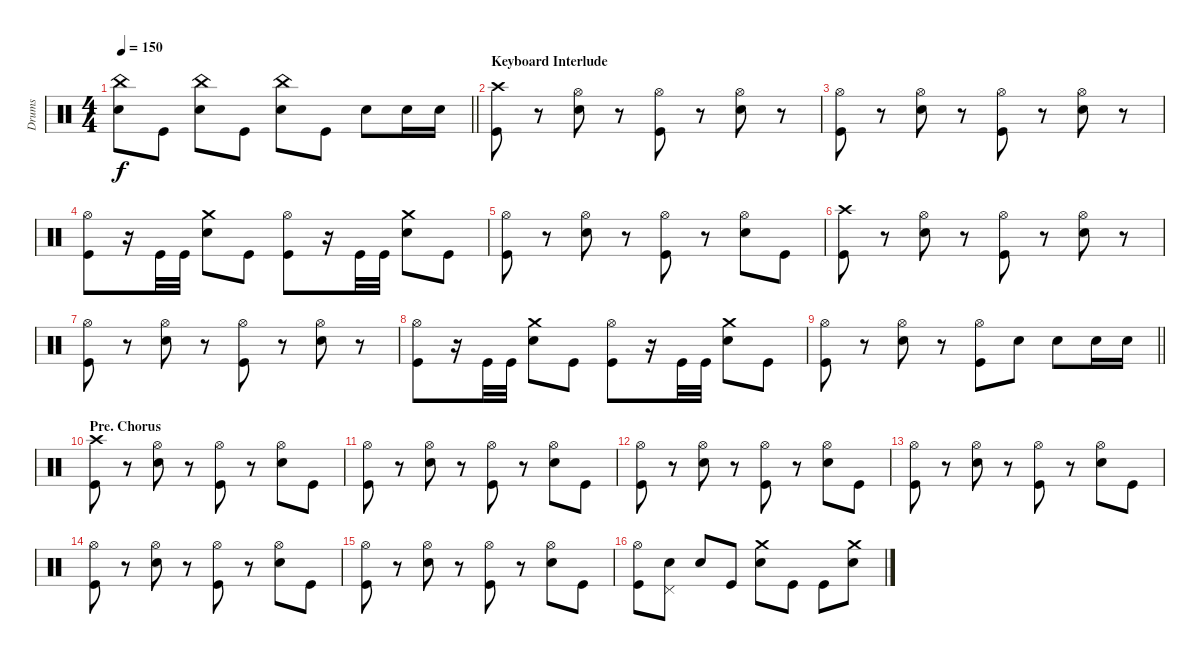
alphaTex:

\track ("Drums" "Drums") {instrument percussion}
\staff {score}
\articulation defaults
\ts (4 4)
\tempo 150
\clef neutral
\barLineRight lightlight
\ks c
("China (hit)" "Electric Snare (hit)").8{dy f} "Kick (hit)".8 ("China (hit)" "Electric Snare (hit)").8 "Kick (hit)".8 ("China (hit)" "Electric Snare (hit)").8 "Kick (hit)".8 "Electric Snare (hit)".8 "Electric Snare (hit)".16 "Electric Snare (hit)".16 |
\section ("" "Keyboard Interlude")
("Crash high (hit)" "Kick (hit)").8 r.8 ("Hi-Hat (open)" "Electric Snare (hit)").8 r.8 ("Hi-Hat (open)" "Kick (hit)").8 r.8 ("Hi-Hat (open)" "Electric Snare (hit)").8 r.8 |
("Hi-Hat (open)" "Kick (hit)").8 r.8 ("Hi-Hat (open)" "Electric Snare (hit)").8 r.8 ("Hi-Hat (open)" "Kick (hit)").8 r.8 ("Hi-Hat (open)" "Electric Snare (hit)").8 r.8 |
("Hi-Hat (open)" "Kick (hit)").8 r.16 "Kick (hit)".32 "Kick (hit)".32 ("Crash medium (hit)" "Electric Snare (hit)").8 "Kick (hit)".8 ("Hi-Hat (open)" "Kick (hit)").8 r.16 "Kick (hit)".32 "Kick (hit)".32 ("Crash medium (hit)" "Electric Snare (hit)").8 "Kick (hit)".8 |
("Hi-Hat (open)" "Kick (hit)").8 r.8 ("Hi-Hat (open)" "Electric Snare (hit)").8 r.8 ("Hi-Hat (open)" "Kick (hit)").8 r.8 ("Hi-Hat (open)" "Electric Snare (hit)").8 "Kick (hit)".8 |
("Crash high (hit)" "Kick (hit)").8 r.8 ("Hi-Hat (open)" "Electric Snare (hit)").8 r.8 ("Hi-Hat (open)" "Kick (hit)").8 r.8 ("Hi-Hat (open)" "Electric Snare (hit)").8 r.8 |
("Hi-Hat (open)" "Kick (hit)").8 r.8 ("Hi-Hat (open)" "Electric Snare (hit)").8 r.8 ("Hi-Hat (open)" "Kick (hit)").8 r.8 ("Hi-Hat (open)" "Electric Snare (hit)").8 r.8 |
("Hi-Hat (open)" "Kick (hit)").8 r.16 "Kick (hit)".32 "Kick (hit)".32 ("Crash medium (hit)" "Electric Snare (hit)").8 "Kick (hit)".8 ("Hi-Hat (open)" "Kick (hit)").8 r.16 "Kick (hit)".32 "Kick (hit)".32 ("Crash medium (hit)" "Electric Snare (hit)").8 "Kick (hit)".8 |
\barLineRight lightlight
("Hi-Hat (open)" "Kick (hit)").8 r.8 ("Hi-Hat (open)" "Electric Snare (hit)").8 r.8 ("Hi-Hat (open)" "Kick (hit)").8 "Electric Snare (hit)".8 "Electric Snare (hit)".8 "Electric Snare (hit)".16 "Electric Snare (hit)".16 |
\section ("" "Pre. Chorus")
("Crash high (hit)" "Kick (hit)").8 r.8 ("Hi-Hat (open)" "Electric Snare (hit)").8 r.8 ("Hi-Hat (open)" "Kick (hit)").8 r.8 ("Hi-Hat (open)" "Electric Snare (hit)").8 "Kick (hit)".8 |
("Hi-Hat (open)" "Kick (hit)").8 r.8 ("Hi-Hat (open)" "Electric Snare (hit)").8 r.8 ("Hi-Hat (open)" "Kick (hit)").8 r.8 ("Hi-Hat (open)" "Electric Snare (hit)").8 "Kick (hit)".8 |
("Hi-Hat (open)" "Kick (hit)").8 r.8 ("Hi-Hat (open)" "Electric Snare (hit)").8 r.8 ("Hi-Hat (open)" "Kick (hit)").8 r.8 ("Hi-Hat (open)" "Electric Snare (hit)").8 "Kick (hit)".8 |
("Hi-Hat (open)" "Kick (hit)").8 r.8 ("Hi-Hat (open)" "Electric Snare (hit)").8 r.8 ("Hi-Hat (open)" "Kick (hit)").8 r.8 ("Hi-Hat (open)" "Electric Snare (hit)").8 "Kick (hit)".8 |
("Hi-Hat (open)" "Kick (hit)").8 r.8 ("Hi-Hat (open)" "Electric Snare (hit)").8 r.8 ("Hi-Hat (open)" "Kick (hit)").8 r.8 ("Hi-Hat (open)" "Electric Snare (hit)").8 "Kick (hit)".8 |
("Hi-Hat (open)" "Kick (hit)").8 r.8 ("Hi-Hat (open)" "Electric Snare (hit)").8 r.8 ("Hi-Hat (open)" "Kick (hit)").8 r.8 ("Hi-Hat (open)" "Electric Snare (hit)").8 "Kick (hit)".8 |
("Hi-Hat (open)" "Kick (hit)").8 ("Pedal Hi-Hat (hit)" "Electric Snare (hit)").8 "Electric Snare (hit)".8 "Kick (hit)".8 ("Crash medium (hit)" "Electric Snare (hit)").8 "Kick (hit)".8 "Kick (hit)".8 ("Crash medium (hit)" "Electric Snare (hit)").8
